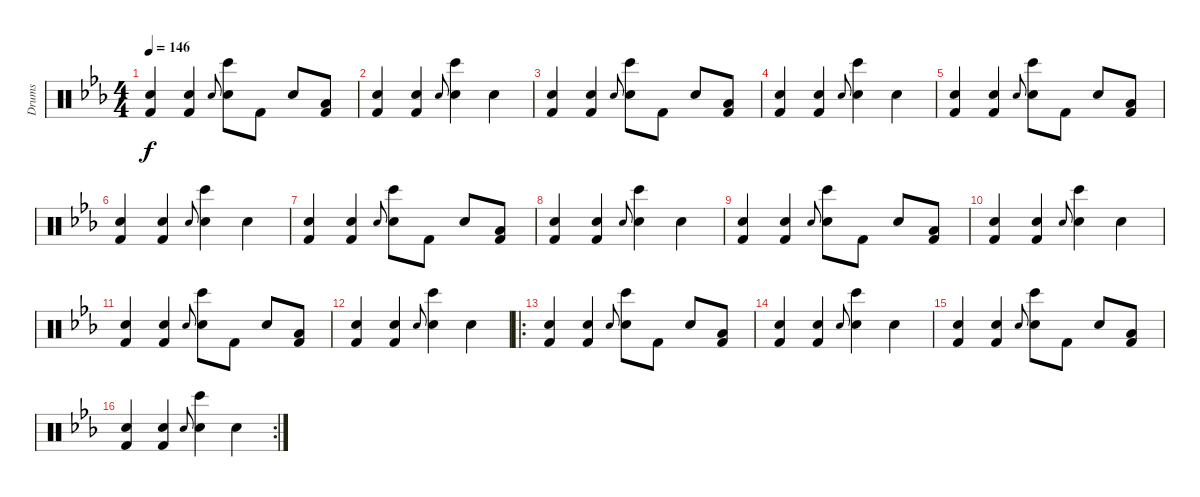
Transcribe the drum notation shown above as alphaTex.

\track ("Drums" "Drums") {instrument percussion}
\staff {score}
\articulation defaults
\ts (4 4)
\tempo 146
\clef neutral
\ks cminor
("Hand Clap (hit)" "Kick (hit) 2").4{dy f} ("Hand Clap (hit)" "Kick (hit) 2").4 "Electric Snare (hit)".8{gr onbeat} ("Hand Clap (hit)" "Bongo High (hit)").8 "Kick (hit) 2".8 "Hand Clap (hit)".8 ("Low Floor Tom (hit)" "Kick (hit) 2").8 |
("Hand Clap (hit)" "Kick (hit) 2").4 ("Hand Clap (hit)" "Kick (hit) 2").4 "Electric Snare (hit)".8{gr onbeat} ("Hand Clap (hit)" "Bongo High (hit)").4 "Hand Clap (hit)".4 |
("Hand Clap (hit)" "Kick (hit) 2").4 ("Hand Clap (hit)" "Kick (hit) 2").4 "Electric Snare (hit)".8{gr onbeat} ("Hand Clap (hit)" "Bongo High (hit)").8 "Kick (hit) 2".8 "Hand Clap (hit)".8 ("Low Floor Tom (hit)" "Kick (hit) 2").8 |
("Hand Clap (hit)" "Kick (hit) 2").4 ("Hand Clap (hit)" "Kick (hit) 2").4 "Electric Snare (hit)".8{gr onbeat} ("Hand Clap (hit)" "Bongo High (hit)").4 "Hand Clap (hit)".4 |
("Hand Clap (hit)" "Kick (hit) 2").4 ("Hand Clap (hit)" "Kick (hit) 2").4 "Electric Snare (hit)".8{gr onbeat} ("Hand Clap (hit)" "Bongo High (hit)").8 "Kick (hit) 2".8 "Hand Clap (hit)".8 ("Low Floor Tom (hit)" "Kick (hit) 2").8 |
("Hand Clap (hit)" "Kick (hit) 2").4 ("Hand Clap (hit)" "Kick (hit) 2").4 "Electric Snare (hit)".8{gr onbeat} ("Hand Clap (hit)" "Bongo High (hit)").4 "Hand Clap (hit)".4 |
("Hand Clap (hit)" "Kick (hit) 2").4 ("Hand Clap (hit)" "Kick (hit) 2").4 "Electric Snare (hit)".8{gr onbeat} ("Hand Clap (hit)" "Bongo High (hit)").8 "Kick (hit) 2".8 "Hand Clap (hit)".8 ("Low Floor Tom (hit)" "Kick (hit) 2").8 |
("Hand Clap (hit)" "Kick (hit) 2").4 ("Hand Clap (hit)" "Kick (hit) 2").4 "Electric Snare (hit)".8{gr onbeat} ("Hand Clap (hit)" "Bongo High (hit)").4 "Hand Clap (hit)".4 |
("Hand Clap (hit)" "Kick (hit) 2").4 ("Hand Clap (hit)" "Kick (hit) 2").4 "Electric Snare (hit)".8{gr onbeat} ("Hand Clap (hit)" "Bongo High (hit)").8 "Kick (hit) 2".8 "Hand Clap (hit)".8 ("Low Floor Tom (hit)" "Kick (hit) 2").8 |
("Hand Clap (hit)" "Kick (hit) 2").4 ("Hand Clap (hit)" "Kick (hit) 2").4 "Electric Snare (hit)".8{gr onbeat} ("Hand Clap (hit)" "Bongo High (hit)").4 "Hand Clap (hit)".4 |
("Hand Clap (hit)" "Kick (hit) 2").4 ("Hand Clap (hit)" "Kick (hit) 2").4 "Electric Snare (hit)".8{gr onbeat} ("Hand Clap (hit)" "Bongo High (hit)").8 "Kick (hit) 2".8 "Hand Clap (hit)".8 ("Low Floor Tom (hit)" "Kick (hit) 2").8 |
("Hand Clap (hit)" "Kick (hit) 2").4 ("Hand Clap (hit)" "Kick (hit) 2").4 "Electric Snare (hit)".8{gr onbeat} ("Hand Clap (hit)" "Bongo High (hit)").4 "Hand Clap (hit)".4 |
\ro
("Hand Clap (hit)" "Kick (hit) 2").4 ("Hand Clap (hit)" "Kick (hit) 2").4 "Electric Snare (hit)".8{gr onbeat} ("Hand Clap (hit)" "Bongo High (hit)").8 "Kick (hit) 2".8 "Hand Clap (hit)".8 ("Low Floor Tom (hit)" "Kick (hit) 2").8 |
("Hand Clap (hit)" "Kick (hit) 2").4 ("Hand Clap (hit)" "Kick (hit) 2").4 "Electric Snare (hit)".8{gr onbeat} ("Hand Clap (hit)" "Bongo High (hit)").4 "Hand Clap (hit)".4 |
("Hand Clap (hit)" "Kick (hit) 2").4 ("Hand Clap (hit)" "Kick (hit) 2").4 "Electric Snare (hit)".8{gr onbeat} ("Hand Clap (hit)" "Bongo High (hit)").8 "Kick (hit) 2".8 "Hand Clap (hit)".8 ("Low Floor Tom (hit)" "Kick (hit) 2").8 |
\rc 2
("Hand Clap (hit)" "Kick (hit) 2").4 ("Hand Clap (hit)" "Kick (hit) 2").4 "Electric Snare (hit)".8{gr onbeat} ("Hand Clap (hit)" "Bongo High (hit)").4 "Hand Clap (hit)".4
